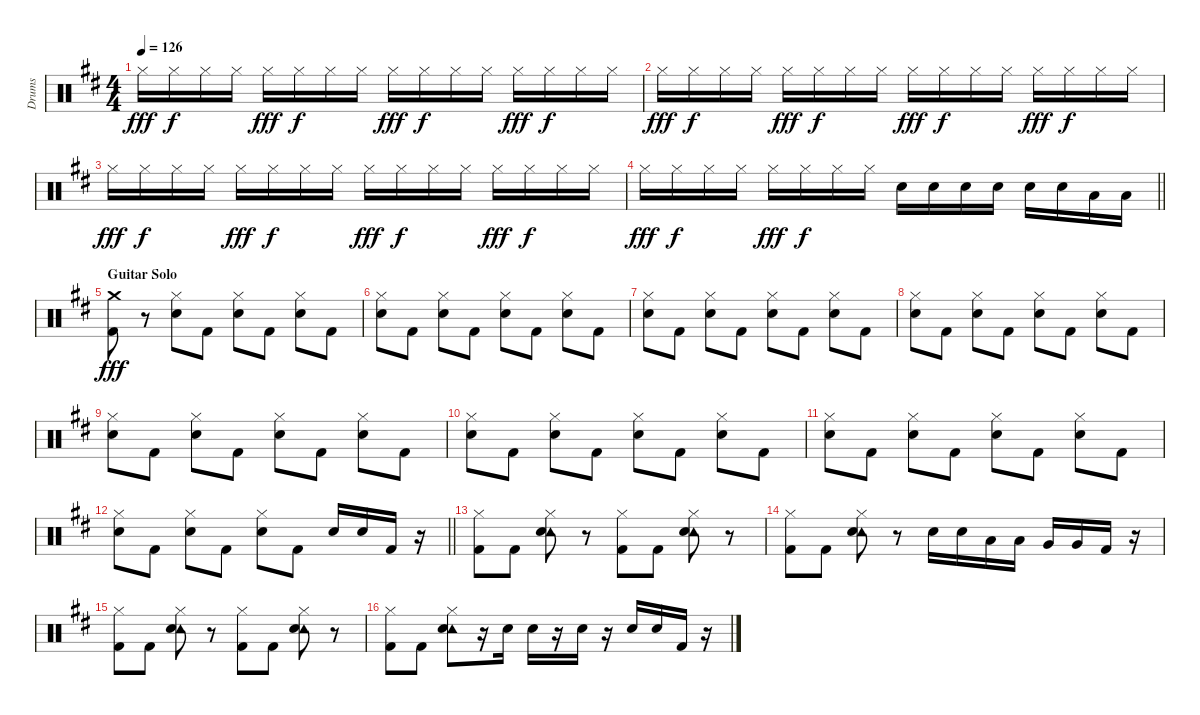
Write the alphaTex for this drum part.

\track ("Drums" "Drums") {instrument percussion}
\staff {score}
\articulation defaults
\ts (4 4)
\tempo 126
\clef neutral
\ks d "Hi-Hat (closed)".16{dy fff} "Hi-Hat (closed)".16{dy f} "Hi-Hat (closed)".16 "Hi-Hat (closed)".16 "Hi-Hat (closed)".16{dy fff} "Hi-Hat (closed)".16{dy f} "Hi-Hat (closed)".16 "Hi-Hat (closed)".16 "Hi-Hat (closed)".16{dy fff} "Hi-Hat (closed)".16{dy f} "Hi-Hat (closed)".16 "Hi-Hat (closed)".16 "Hi-Hat (closed)".16{dy fff} "Hi-Hat (closed)".16{dy f} "Hi-Hat (closed)".16 "Hi-Hat (closed)".16
|
"Hi-Hat (closed)".16{dy fff} "Hi-Hat (closed)".16{dy f} "Hi-Hat (closed)".16 "Hi-Hat (closed)".16 "Hi-Hat (closed)".16{dy fff} "Hi-Hat (closed)".16{dy f} "Hi-Hat (closed)".16 "Hi-Hat (closed)".16 "Hi-Hat (closed)".16{dy fff} "Hi-Hat (closed)".16{dy f} "Hi-Hat (closed)".16 "Hi-Hat (closed)".16 "Hi-Hat (closed)".16{dy fff} "Hi-Hat (closed)".16{dy f} "Hi-Hat (closed)".16 "Hi-Hat (closed)".16 |
"Hi-Hat (closed)".16{dy fff} "Hi-Hat (closed)".16{dy f} "Hi-Hat (closed)".16 "Hi-Hat (closed)".16 "Hi-Hat (closed)".16{dy fff} "Hi-Hat (closed)".16{dy f} "Hi-Hat (closed)".16 "Hi-Hat (closed)".16 "Hi-Hat (closed)".16{dy fff} "Hi-Hat (closed)".16{dy f} "Hi-Hat (closed)".16 "Hi-Hat (closed)".16 "Hi-Hat (closed)".16{dy fff} "Hi-Hat (closed)".16{dy f} "Hi-Hat (closed)".16 "Hi-Hat (closed)".16 |
\barLineRight lightlight "Hi-Hat (closed)".16{dy fff} "Hi-Hat (closed)".16{dy f} "Hi-Hat (closed)".16 "Hi-Hat (closed)".16 "Hi-Hat (closed)".16{dy fff} "Hi-Hat (closed)".16{dy f} "Hi-Hat (closed)".16 "Hi-Hat (closed)".16 "Snare (hit) 2".16 "Snare (hit) 2".16 "Snare (hit) 2".16 "Snare (hit) 2".16 "Snare (hit) 2".16 "Snare (hit) 2".16 "Low Tom (hit)".16 "Low Tom (hit)".16
|
\section ("" "Guitar Solo")
("Crash medium (hit)" "Kick (hit) 2").8{dy fff} r.8 ("Hi-Hat (closed)" "Snare (hit) 2").8 "Kick (hit) 2".8 ("Hi-Hat (closed)" "Snare (hit) 2").8 "Kick (hit) 2".8 ("Hi-Hat (closed)" "Snare (hit) 2").8 "Kick (hit) 2".8 |
("Hi-Hat (closed)" "Snare (hit) 2").8 "Kick (hit) 2".8 ("Hi-Hat (closed)" "Snare (hit) 2").8 "Kick (hit) 2".8 ("Hi-Hat (closed)" "Snare (hit) 2").8 "Kick (hit) 2".8 ("Hi-Hat (closed)" "Snare (hit) 2").8 "Kick (hit) 2".8 |
("Hi-Hat (closed)" "Snare (hit) 2").8 "Kick (hit) 2".8 ("Hi-Hat (closed)" "Snare (hit) 2").8 "Kick (hit) 2".8 ("Hi-Hat (closed)" "Snare (hit) 2").8 "Kick (hit) 2".8 ("Hi-Hat (closed)" "Snare (hit) 2").8 "Kick (hit) 2".8 |
("Hi-Hat (closed)" "Snare (hit) 2").8 "Kick (hit) 2".8 ("Hi-Hat (closed)" "Snare (hit) 2").8 "Kick (hit) 2".8 ("Hi-Hat (closed)" "Snare (hit) 2").8 "Kick (hit) 2".8 ("Hi-Hat (closed)" "Snare (hit) 2").8 "Kick (hit) 2".8 |
("Hi-Hat (closed)" "Snare (hit) 2").8 "Kick (hit) 2".8 ("Hi-Hat (closed)" "Snare (hit) 2").8 "Kick (hit) 2".8 ("Hi-Hat (closed)" "Snare (hit) 2").8 "Kick (hit) 2".8 ("Hi-Hat (closed)" "Snare (hit) 2").8 "Kick (hit) 2".8 |
("Hi-Hat (closed)" "Snare (hit) 2").8 "Kick (hit) 2".8 ("Hi-Hat (closed)" "Snare (hit) 2").8 "Kick (hit) 2".8 ("Hi-Hat (closed)" "Snare (hit) 2").8 "Kick (hit) 2".8 ("Hi-Hat (closed)" "Snare (hit) 2").8 "Kick (hit) 2".8 |
("Hi-Hat (closed)" "Snare (hit) 2").8 "Kick (hit) 2".8 ("Hi-Hat (closed)" "Snare (hit) 2").8 "Kick (hit) 2".8 ("Hi-Hat (closed)" "Snare (hit) 2").8 "Kick (hit) 2".8 ("Hi-Hat (closed)" "Snare (hit) 2").8 "Kick (hit) 2".8 |
\barLineRight lightlight
("Hi-Hat (closed)" "Snare (hit) 2").8 "Kick (hit) 2".8 ("Hi-Hat (closed)" "Snare (hit) 2").8 "Kick (hit) 2".8 ("Hi-Hat (closed)" "Snare (hit) 2").8 "Kick (hit) 2".8 "Snare (hit) 2".16 "Snare (hit) 2".16 "Kick (hit) 2".16 r.16 |
("Hi-Hat (closed)" "Kick (hit) 2").8 "Kick (hit) 2".8 ("Hi-Hat (closed)" "Tambourine (hit)" "Snare (hit) 2").8 r.8 ("Hi-Hat (closed)" "Kick (hit) 2").8 "Kick (hit) 2".8 ("Hi-Hat (closed)" "Tambourine (hit)" "Snare (hit) 2").8 r.8 |
("Hi-Hat (closed)" "Kick (hit) 2").8 "Kick (hit) 2".8 ("Hi-Hat (closed)" "Tambourine (hit)" "Snare (hit) 2").8 r.8 "Snare (hit) 2".16 "Snare (hit) 2".16 "Low Tom (hit)".16 "Low Tom (hit)".16 "Very Low Tom (hit)".16 "Very Low Tom (hit)".16 "Kick (hit) 2".16 r.16 |
("Hi-Hat (closed)" "Kick (hit) 2").8 "Kick (hit) 2".8 ("Hi-Hat (closed)" "Tambourine (hit)" "Snare (hit) 2").8 r.8 ("Hi-Hat (closed)" "Kick (hit) 2").8 "Kick (hit) 2".8 ("Hi-Hat (closed)" "Tambourine (hit)" "Snare (hit) 2").8 r.8 |
("Hi-Hat (closed)" "Kick (hit) 2").8 "Kick (hit) 2".8 ("Hi-Hat (closed)" "Tambourine (hit)" "Snare (hit) 2").8 r.16 "Snare (hit) 2".16 "Snare (hit) 2".16 r.16 "Snare (hit) 2".16 r.16 "Snare (hit) 2".16 "Snare (hit) 2".16 "Kick (hit) 2".16 r.16
